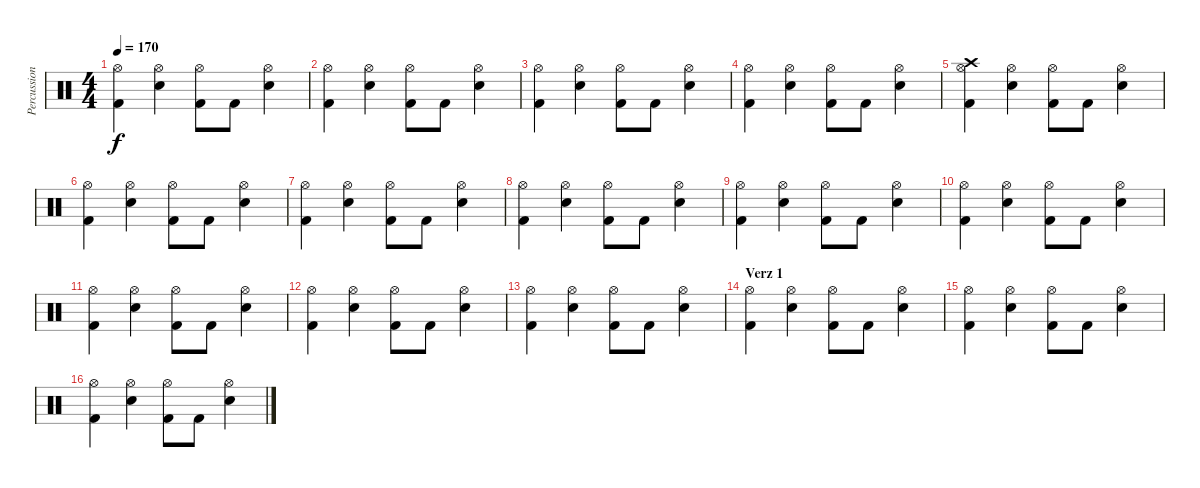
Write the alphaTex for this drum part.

\track ("Percussion - Who the fuck knows" "Percussion") {instrument percussion}
\staff {score}
\articulation defaults
\ts (4 4)
\tempo 170
\clef neutral
\ks c
("Hi-Hat (open)" "Kick (hit) 2").4{dy f} ("Hi-Hat (open)" "Snare (hit) 2").4 ("Hi-Hat (open)" "Kick (hit) 2").8 "Kick (hit) 2".8 ("Hi-Hat (open)" "Snare (hit) 2").4 |
("Hi-Hat (open)" "Kick (hit) 2").4 ("Hi-Hat (open)" "Snare (hit) 2").4 ("Hi-Hat (open)" "Kick (hit) 2").8 "Kick (hit) 2".8 ("Hi-Hat (open)" "Snare (hit) 2").4 |
("Hi-Hat (open)" "Kick (hit) 2").4 ("Hi-Hat (open)" "Snare (hit) 2").4 ("Hi-Hat (open)" "Kick (hit) 2").8 "Kick (hit) 2".8 ("Hi-Hat (open)" "Snare (hit) 2").4 |
("Hi-Hat (open)" "Kick (hit) 2").4 ("Hi-Hat (open)" "Snare (hit) 2").4 ("Hi-Hat (open)" "Kick (hit) 2").8 "Kick (hit) 2".8 ("Hi-Hat (open)" "Snare (hit) 2").4 |
("Hi-Hat (open)" "Kick (hit) 2" "Crash high (hit)").4 ("Hi-Hat (open)" "Snare (hit) 2").4 ("Hi-Hat (open)" "Kick (hit) 2").8 "Kick (hit) 2".8 ("Hi-Hat (open)" "Snare (hit) 2").4 |
("Hi-Hat (open)" "Kick (hit) 2").4 ("Hi-Hat (open)" "Snare (hit) 2").4 ("Hi-Hat (open)" "Kick (hit) 2").8 "Kick (hit) 2".8 ("Hi-Hat (open)" "Snare (hit) 2").4 |
("Hi-Hat (open)" "Kick (hit) 2").4 ("Hi-Hat (open)" "Snare (hit) 2").4 ("Hi-Hat (open)" "Kick (hit) 2").8 "Kick (hit) 2".8 ("Hi-Hat (open)" "Snare (hit) 2").4 |
("Hi-Hat (open)" "Kick (hit) 2").4 ("Hi-Hat (open)" "Snare (hit) 2").4 ("Hi-Hat (open)" "Kick (hit) 2").8 "Kick (hit) 2".8 ("Hi-Hat (open)" "Snare (hit) 2").4 |
("Hi-Hat (open)" "Kick (hit) 2").4 ("Hi-Hat (open)" "Snare (hit) 2").4 ("Hi-Hat (open)" "Kick (hit) 2").8 "Kick (hit) 2".8 ("Hi-Hat (open)" "Snare (hit) 2").4 |
("Hi-Hat (open)" "Kick (hit) 2").4 ("Hi-Hat (open)" "Snare (hit) 2").4 ("Hi-Hat (open)" "Kick (hit) 2").8 "Kick (hit) 2".8 ("Hi-Hat (open)" "Snare (hit) 2").4 |
("Hi-Hat (open)" "Kick (hit) 2").4 ("Hi-Hat (open)" "Snare (hit) 2").4 ("Hi-Hat (open)" "Kick (hit) 2").8 "Kick (hit) 2".8 ("Hi-Hat (open)" "Snare (hit) 2").4 |
("Hi-Hat (open)" "Kick (hit) 2").4 ("Hi-Hat (open)" "Snare (hit) 2").4 ("Hi-Hat (open)" "Kick (hit) 2").8 "Kick (hit) 2".8 ("Hi-Hat (open)" "Snare (hit) 2").4 |
("Hi-Hat (open)" "Kick (hit) 2").4 ("Hi-Hat (open)" "Snare (hit) 2").4 ("Hi-Hat (open)" "Kick (hit) 2").8 "Kick (hit) 2".8 ("Hi-Hat (open)" "Snare (hit) 2").4 |
\section ("" "Verz 1")
("Hi-Hat (open)" "Kick (hit) 2").4 ("Hi-Hat (open)" "Snare (hit) 2").4 ("Hi-Hat (open)" "Kick (hit) 2").8 "Kick (hit) 2".8 ("Hi-Hat (open)" "Snare (hit) 2").4 |
("Hi-Hat (open)" "Kick (hit) 2").4 ("Hi-Hat (open)" "Snare (hit) 2").4 ("Hi-Hat (open)" "Kick (hit) 2").8 "Kick (hit) 2".8 ("Hi-Hat (open)" "Snare (hit) 2").4 |
("Hi-Hat (open)" "Kick (hit) 2").4 ("Hi-Hat (open)" "Snare (hit) 2").4 ("Hi-Hat (open)" "Kick (hit) 2").8 "Kick (hit) 2".8 ("Hi-Hat (open)" "Snare (hit) 2").4
